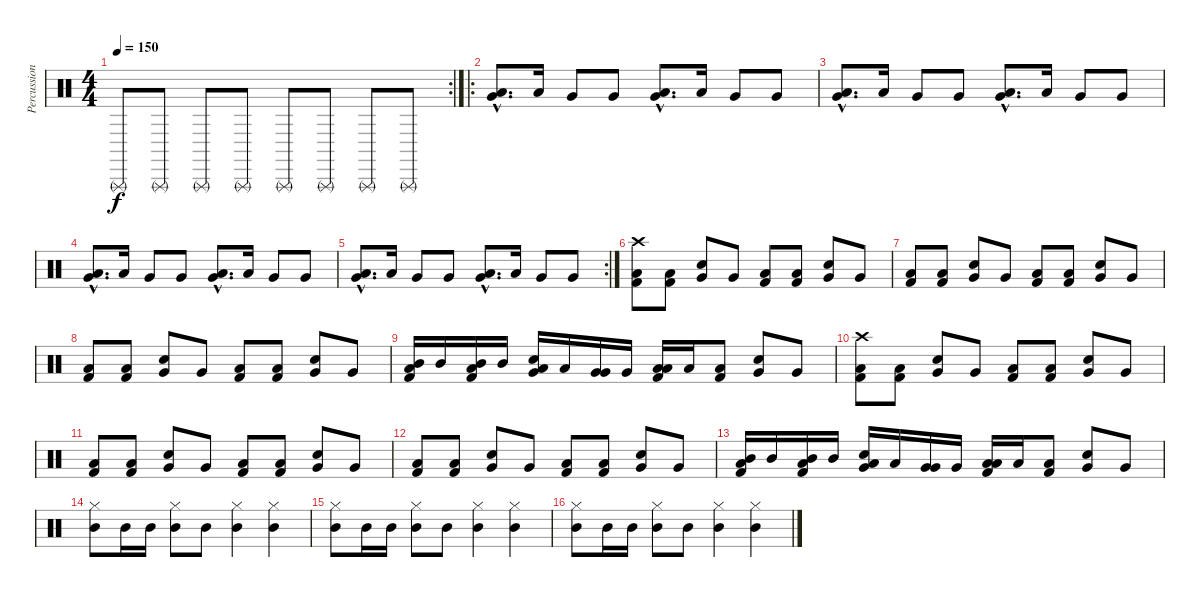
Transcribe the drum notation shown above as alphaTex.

\track ("Percussions" "Percussion") {instrument percussion}
\staff {score}
\articulation defaults
\rc 2
\ts (4 4)
\tempo 150
\clef neutral
\ks c "Triangle (rnute)".8{dy f} "Triangle (rnute)".8 "Triangle (rnute)".8 "Triangle (rnute)".8 "Triangle (rnute)".8 "Triangle (rnute)".8 "Triangle (rnute)".8 "Triangle (rnute)".8
|
\ro
("Very Low Tom (hit)"{hac} "Low Floor Tom (hit)"{hac}).8{d} "Low Floor Tom (hit)".16 "Very Low Tom (hit)".8 "Very Low Tom (hit)".8 ("Very Low Tom (hit)"{hac} "Low Floor Tom (hit)"{hac}).8{d} "Low Floor Tom (hit)".16 "Very Low Tom (hit)".8 "Very Low Tom (hit)".8 |
("Very Low Tom (hit)"{hac} "Low Floor Tom (hit)"{hac}).8{d} "Low Floor Tom (hit)".16 "Very Low Tom (hit)".8 "Very Low Tom (hit)".8 ("Very Low Tom (hit)"{hac} "Low Floor Tom (hit)"{hac}).8{d} "Low Floor Tom (hit)".16 "Very Low Tom (hit)".8 "Very Low Tom (hit)".8 |
("Very Low Tom (hit)"{hac} "Low Floor Tom (hit)"{hac}).8{d} "Low Floor Tom (hit)".16 "Very Low Tom (hit)".8 "Very Low Tom (hit)".8 ("Very Low Tom (hit)"{hac} "Low Floor Tom (hit)"{hac}).8{d} "Low Floor Tom (hit)".16 "Very Low Tom (hit)".8 "Very Low Tom (hit)".8 |
\rc 2
("Very Low Tom (hit)"{hac} "Low Floor Tom (hit)"{hac}).8{d} "Low Floor Tom (hit)".16 "Very Low Tom (hit)".8 "Very Low Tom (hit)".8 ("Very Low Tom (hit)"{hac} "Low Floor Tom (hit)"{hac}).8{d} "Low Floor Tom (hit)".16 "Very Low Tom (hit)".8 "Very Low Tom (hit)".8 |
("Kick (hit) 2" "Low Floor Tom (hit)" "Crash high (hit)").8 ("Kick (hit) 2" "Low Floor Tom (hit)").8 ("Snare (hit) 2" "Very Low Tom (hit)").8 "Very Low Tom (hit)".8 ("Kick (hit) 2" "Low Floor Tom (hit)").8 ("Kick (hit) 2" "Low Floor Tom (hit)").8 ("Snare (hit) 2" "Very Low Tom (hit)").8 "Very Low Tom (hit)".8 |
("Kick (hit) 2" "Low Floor Tom (hit)").8 ("Kick (hit) 2" "Low Floor Tom (hit)").8 ("Snare (hit) 2" "Very Low Tom (hit)").8 "Very Low Tom (hit)".8 ("Kick (hit) 2" "Low Floor Tom (hit)").8 ("Kick (hit) 2" "Low Floor Tom (hit)").8 ("Snare (hit) 2" "Very Low Tom (hit)").8 "Very Low Tom (hit)".8 |
("Kick (hit) 2" "Low Floor Tom (hit)").8 ("Kick (hit) 2" "Low Floor Tom (hit)").8 ("Snare (hit) 2" "Very Low Tom (hit)").8 "Very Low Tom (hit)".8 ("Kick (hit) 2" "Low Floor Tom (hit)").8 ("Kick (hit) 2" "Low Floor Tom (hit)").8 ("Snare (hit) 2" "Very Low Tom (hit)").8 "Very Low Tom (hit)".8 |
("Kick (hit) 2" "Low Floor Tom (hit)" "Mid Tom (hit)").16 "Mid Tom (hit)".16 ("Kick (hit) 2" "Low Floor Tom (hit)" "Mid Tom (hit)").16 "Mid Tom (hit)".16 ("Snare (hit) 2" "Very Low Tom (hit)" "Low Tom (hit)").16 "Low Tom (hit)".16 ("Very Low Tom (hit)" "Very Low Tom (hit)").16 "Very Low Tom (hit)".16 ("Kick (hit) 2" "Low Floor Tom (hit)" "Low Floor Tom (hit)").16 "Low Floor Tom (hit)".16 ("Kick (hit) 2" "Low Floor Tom (hit)").8 ("Snare (hit) 2" "Very Low Tom (hit)").8 "Very Low Tom (hit)".8 |
("Kick (hit) 2" "Low Floor Tom (hit)" "Crash high (hit)").8 ("Kick (hit) 2" "Low Floor Tom (hit)").8 ("Snare (hit) 2" "Very Low Tom (hit)").8 "Very Low Tom (hit)".8 ("Kick (hit) 2" "Low Floor Tom (hit)").8 ("Kick (hit) 2" "Low Floor Tom (hit)").8 ("Snare (hit) 2" "Very Low Tom (hit)").8 "Very Low Tom (hit)".8 |
("Kick (hit) 2" "Low Floor Tom (hit)").8 ("Kick (hit) 2" "Low Floor Tom (hit)").8 ("Snare (hit) 2" "Very Low Tom (hit)").8 "Very Low Tom (hit)".8 ("Kick (hit) 2" "Low Floor Tom (hit)").8 ("Kick (hit) 2" "Low Floor Tom (hit)").8 ("Snare (hit) 2" "Very Low Tom (hit)").8 "Very Low Tom (hit)".8 |
("Kick (hit) 2" "Low Floor Tom (hit)").8 ("Kick (hit) 2" "Low Floor Tom (hit)").8 ("Snare (hit) 2" "Very Low Tom (hit)").8 "Very Low Tom (hit)".8 ("Kick (hit) 2" "Low Floor Tom (hit)").8 ("Kick (hit) 2" "Low Floor Tom (hit)").8 ("Snare (hit) 2" "Very Low Tom (hit)").8 "Very Low Tom (hit)".8 |
("Kick (hit) 2" "Low Floor Tom (hit)" "Mid Tom (hit)").16 "Mid Tom (hit)".16 ("Kick (hit) 2" "Low Floor Tom (hit)" "Mid Tom (hit)").16 "Mid Tom (hit)".16 ("Snare (hit) 2" "Very Low Tom (hit)" "Low Tom (hit)").16 "Low Tom (hit)".16 ("Very Low Tom (hit)" "Very Low Tom (hit)").16 "Very Low Tom (hit)".16 ("Kick (hit) 2" "Low Floor Tom (hit)" "Low Floor Tom (hit)").16 "Low Floor Tom (hit)".16 ("Kick (hit) 2" "Low Floor Tom (hit)").8 ("Snare (hit) 2" "Very Low Tom (hit)").8 "Very Low Tom (hit)".8 |
("Mid Tom (hit)" "Hi-Hat (closed)").8 "Mid Tom (hit)".16 "Mid Tom (hit)".16 ("Mid Tom (hit)" "Hi-Hat (closed)").8 "Mid Tom (hit)".8 ("Mid Tom (hit)" "Hi-Hat (closed)").4 ("Mid Tom (hit)" "Hi-Hat (closed)").4 |
("Mid Tom (hit)" "Hi-Hat (closed)").8 "Mid Tom (hit)".16 "Mid Tom (hit)".16 ("Mid Tom (hit)" "Hi-Hat (closed)").8 "Mid Tom (hit)".8 ("Mid Tom (hit)" "Hi-Hat (closed)").4 ("Mid Tom (hit)" "Hi-Hat (closed)").4 |
("Mid Tom (hit)" "Hi-Hat (closed)").8 "Mid Tom (hit)".16 "Mid Tom (hit)".16 ("Mid Tom (hit)" "Hi-Hat (closed)").8 "Mid Tom (hit)".8 ("Mid Tom (hit)" "Hi-Hat (closed)").4 ("Mid Tom (hit)" "Hi-Hat (closed)").4
